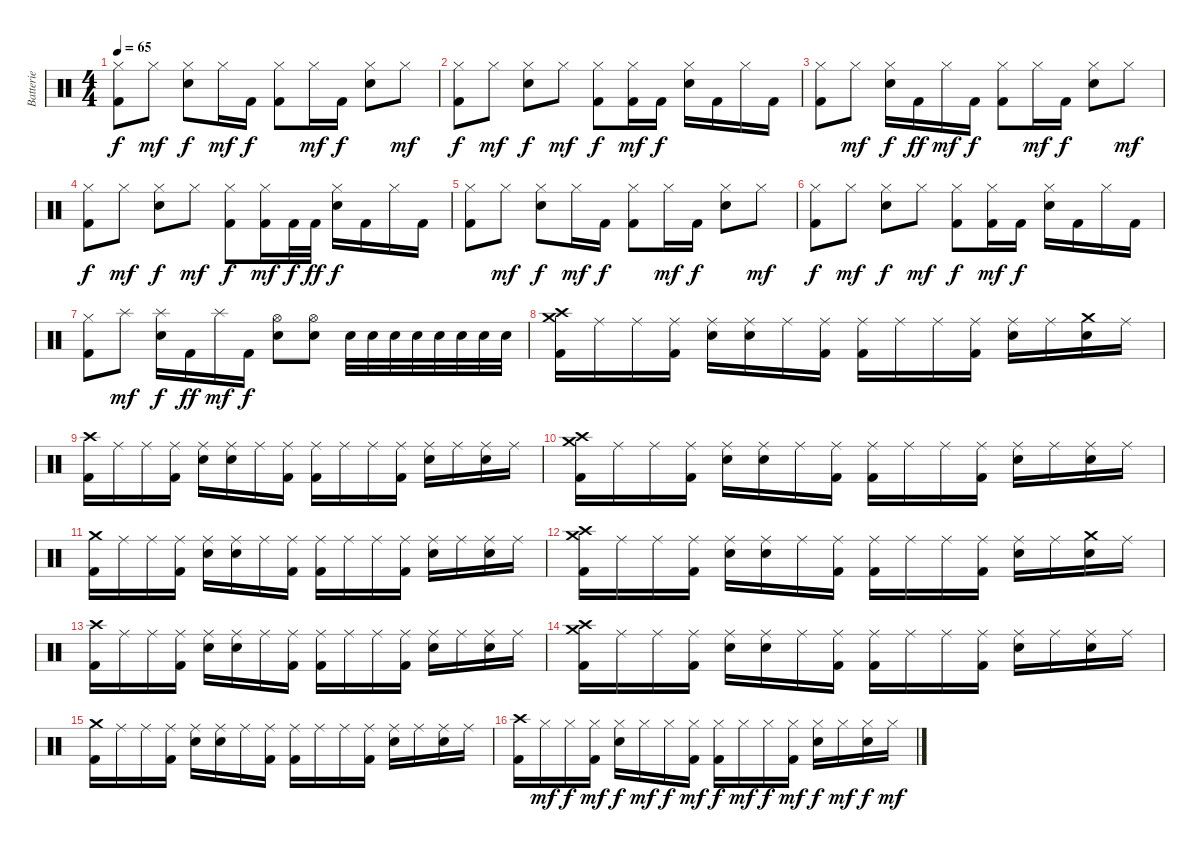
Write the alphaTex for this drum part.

\track ("Batterie" "Batterie") {instrument percussion}
\staff {score}
\articulation defaults
\ts (4 4)
\tempo 65
\clef neutral
\ks c
("Hi-Hat (closed)" "Kick (hit) 2").8{dy f} "Hi-Hat (closed)".8{dy mf} ("Hi-Hat (closed)" "Electric Snare (hit)").8{dy f} "Hi-Hat (closed)".16{dy mf} "Kick (hit) 2".16{dy f} ("Hi-Hat (closed)" "Kick (hit) 2").8 "Hi-Hat (closed)".16{dy mf} "Kick (hit) 2".16{dy f} ("Hi-Hat (closed)" "Electric Snare (hit)").8 "Hi-Hat (closed)".8{dy mf} |
("Hi-Hat (closed)" "Kick (hit) 2").8{dy f} "Hi-Hat (closed)".8{dy mf} ("Hi-Hat (closed)" "Electric Snare (hit)").8{dy f} "Hi-Hat (closed)".8{dy mf} ("Hi-Hat (closed)" "Kick (hit) 2").8{dy f} ("Hi-Hat (closed)" "Kick (hit) 2").16{dy mf} "Kick (hit) 2".16{dy f} ("Hi-Hat (closed)" "Electric Snare (hit)").16 "Kick (hit) 2".16 "Hi-Hat (closed)".16 "Kick (hit) 2".16 |
("Hi-Hat (closed)" "Kick (hit) 2").8 "Hi-Hat (closed)".8{dy mf} ("Hi-Hat (closed)" "Electric Snare (hit)").16{dy f} "Kick (hit) 2".16{dy ff} "Hi-Hat (closed)".16{dy mf} "Kick (hit) 2".16{dy f} ("Hi-Hat (closed)" "Kick (hit) 2").8 "Hi-Hat (closed)".16{dy mf} "Kick (hit) 2".16{dy f} ("Hi-Hat (closed)" "Electric Snare (hit)").8 "Hi-Hat (closed)".8{dy mf} |
("Hi-Hat (closed)" "Kick (hit) 2").8{dy f} "Hi-Hat (closed)".8{dy mf} ("Hi-Hat (closed)" "Electric Snare (hit)").8{dy f} "Hi-Hat (closed)".8{dy mf} ("Hi-Hat (closed)" "Kick (hit) 2").8{dy f} ("Hi-Hat (closed)" "Kick (hit) 2").16{dy mf} "Kick (hit) 2".32{dy f} "Kick (hit) 2".32{dy ff} ("Hi-Hat (closed)" "Electric Snare (hit)").16{dy f} "Kick (hit) 2".16 "Hi-Hat (closed)".16 "Kick (hit) 2".16 |
("Hi-Hat (closed)" "Kick (hit) 2").8 "Hi-Hat (closed)".8{dy mf} ("Hi-Hat (closed)" "Electric Snare (hit)").8{dy f} "Hi-Hat (closed)".16{dy mf} "Kick (hit) 2".16{dy f} ("Hi-Hat (closed)" "Kick (hit) 2").8 "Hi-Hat (closed)".16{dy mf} "Kick (hit) 2".16{dy f} ("Hi-Hat (closed)" "Electric Snare (hit)").8 "Hi-Hat (closed)".8{dy mf} |
("Hi-Hat (closed)" "Kick (hit) 2").8{dy f} "Hi-Hat (closed)".8{dy mf} ("Hi-Hat (closed)" "Electric Snare (hit)").8{dy f} "Hi-Hat (closed)".8{dy mf} ("Hi-Hat (closed)" "Kick (hit) 2").8{dy f} ("Hi-Hat (closed)" "Kick (hit) 2").16{dy mf} "Kick (hit) 2".16{dy f} ("Hi-Hat (closed)" "Electric Snare (hit)").16 "Kick (hit) 2".16 "Hi-Hat (closed)".16 "Kick (hit) 2".16 |
("Hi-Hat (closed)" "Kick (hit) 2").8 "Splash (hit)".8{dy mf} ("Splash (hit)" "Electric Snare (hit)").16{dy f} "Kick (hit) 2".16{dy ff} "Splash (hit)".16{dy mf} "Kick (hit) 2".16{dy f} ("Hi-Hat (open)" "Electric Snare (hit)").8 ("Hi-Hat (open)" "Electric Snare (hit)").8 "Electric Snare (hit)".32 "Electric Snare (hit)".32 "Electric Snare (hit)".32 "Electric Snare (hit)".32 "Electric Snare (hit)".32 "Electric Snare (hit)".32 "Electric Snare (hit)".32 "Electric Snare (hit)".32 |
("Crash high (hit)" "Crash medium (hit)" "Kick (hit) 2").16 "Ride (middle)".16 "Ride (middle)".16 ("Ride (middle)" "Kick (hit) 2").16 ("Ride (middle)" "Electric Snare (hit)").16 ("Ride (middle)" "Electric Snare (hit)").16 "Ride (middle)".16 ("Ride (middle)" "Kick (hit) 2").16 ("Ride (middle)" "Kick (hit) 2").16 "Ride (middle)".16 "Ride (middle)".16 ("Ride (middle)" "Kick (hit) 2").16 ("Ride (middle)" "Electric Snare (hit)").16 "Ride (middle)".16 ("Crash medium (hit)" "Electric Snare (hit)").16 "Ride (middle)".16 |
("Crash high (hit)" "Kick (hit) 2").16 "Ride (middle)".16 "Ride (middle)".16 ("Ride (middle)" "Kick (hit) 2").16 ("Ride (middle)" "Electric Snare (hit)").16 ("Ride (middle)" "Electric Snare (hit)").16 "Ride (middle)".16 ("Ride (middle)" "Kick (hit) 2").16 ("Ride (middle)" "Kick (hit) 2").16 "Ride (middle)".16 "Ride (middle)".16 ("Ride (middle)" "Kick (hit) 2").16 ("Ride (middle)" "Electric Snare (hit)").16 "Ride (middle)".16 ("Ride (middle)" "Electric Snare (hit)").16 "Ride (middle)".16 |
("Crash high (hit)" "Crash medium (hit)" "Kick (hit) 2").16 "Ride (middle)".16 "Ride (middle)".16 ("Ride (middle)" "Kick (hit) 2").16 ("Ride (middle)" "Electric Snare (hit)").16 ("Ride (middle)" "Electric Snare (hit)").16 "Ride (middle)".16 ("Ride (middle)" "Kick (hit) 2").16 ("Ride (middle)" "Kick (hit) 2").16 "Ride (middle)".16 "Ride (middle)".16 ("Ride (middle)" "Kick (hit) 2").16 ("Ride (middle)" "Electric Snare (hit)").16 "Ride (middle)".16 ("Ride (middle)" "Electric Snare (hit)").16 "Ride (middle)".16 |
("Crash medium (hit)" "Kick (hit) 2").16 "Ride (middle)".16 "Ride (middle)".16 ("Ride (middle)" "Kick (hit) 2").16 ("Ride (middle)" "Electric Snare (hit)").16 ("Ride (middle)" "Electric Snare (hit)").16 "Ride (middle)".16 ("Ride (middle)" "Kick (hit) 2").16 ("Ride (middle)" "Kick (hit) 2").16 "Ride (middle)".16 "Ride (middle)".16 ("Ride (middle)" "Kick (hit) 2").16 ("Ride (middle)" "Electric Snare (hit)").16 "Ride (middle)".16 ("Ride (middle)" "Electric Snare (hit)").16 "Ride (middle)".16 |
("Crash high (hit)" "Crash medium (hit)" "Kick (hit) 2").16 "Ride (middle)".16 "Ride (middle)".16 ("Ride (middle)" "Kick (hit) 2").16 ("Ride (middle)" "Electric Snare (hit)").16 ("Ride (middle)" "Electric Snare (hit)").16 "Ride (middle)".16 ("Ride (middle)" "Kick (hit) 2").16 ("Ride (middle)" "Kick (hit) 2").16 "Ride (middle)".16 "Ride (middle)".16 ("Ride (middle)" "Kick (hit) 2").16 ("Ride (middle)" "Electric Snare (hit)").16 "Ride (middle)".16 ("Crash medium (hit)" "Electric Snare (hit)").16 "Ride (middle)".16 |
("Crash high (hit)" "Kick (hit) 2").16 "Ride (middle)".16 "Ride (middle)".16 ("Ride (middle)" "Kick (hit) 2").16 ("Ride (middle)" "Electric Snare (hit)").16 ("Ride (middle)" "Electric Snare (hit)").16 "Ride (middle)".16 ("Ride (middle)" "Kick (hit) 2").16 ("Ride (middle)" "Kick (hit) 2").16 "Ride (middle)".16 "Ride (middle)".16 ("Ride (middle)" "Kick (hit) 2").16 ("Ride (middle)" "Electric Snare (hit)").16 "Ride (middle)".16 ("Ride (middle)" "Electric Snare (hit)").16 "Ride (middle)".16 |
("Crash high (hit)" "Crash medium (hit)" "Kick (hit) 2").16 "Ride (middle)".16 "Ride (middle)".16 ("Ride (middle)" "Kick (hit) 2").16 ("Ride (middle)" "Electric Snare (hit)").16 ("Ride (middle)" "Electric Snare (hit)").16 "Ride (middle)".16 ("Ride (middle)" "Kick (hit) 2").16 ("Ride (middle)" "Kick (hit) 2").16 "Ride (middle)".16 "Ride (middle)".16 ("Ride (middle)" "Kick (hit) 2").16 ("Ride (middle)" "Electric Snare (hit)").16 "Ride (middle)".16 ("Ride (middle)" "Electric Snare (hit)").16 "Ride (middle)".16 |
("Crash medium (hit)" "Kick (hit) 2").16 "Ride (middle)".16 "Ride (middle)".16 ("Ride (middle)" "Kick (hit) 2").16 ("Ride (middle)" "Electric Snare (hit)").16 ("Ride (middle)" "Electric Snare (hit)").16 "Ride (middle)".16 ("Ride (middle)" "Kick (hit) 2").16 ("Ride (middle)" "Kick (hit) 2").16 "Ride (middle)".16 "Ride (middle)".16 ("Ride (middle)" "Kick (hit) 2").16 ("Ride (middle)" "Electric Snare (hit)").16 "Ride (middle)".16 ("Ride (middle)" "Electric Snare (hit)").16 "Ride (middle)".16 |
("Crash high (hit)" "Kick (hit) 2").16 "Hi-Hat (closed)".16{dy mf} "Hi-Hat (closed)".16{dy f} ("Hi-Hat (closed)" "Kick (hit) 2").16{dy mf} ("Hi-Hat (closed)" "Electric Snare (hit)").16{dy f} "Hi-Hat (closed)".16{dy mf} "Hi-Hat (closed)".16{dy f} ("Hi-Hat (closed)" "Kick (hit) 2").16{dy mf} ("Hi-Hat (closed)" "Kick (hit) 2").16{dy f} "Hi-Hat (closed)".16{dy mf} "Hi-Hat (closed)".16{dy f} ("Hi-Hat (closed)" "Kick (hit) 2").16{dy mf} ("Hi-Hat (closed)" "Electric Snare (hit)").16{dy f} "Hi-Hat (closed)".16{dy mf} ("Hi-Hat (closed)" "Electric Snare (hit)").16{dy f} "Hi-Hat (closed)".16{dy mf}
